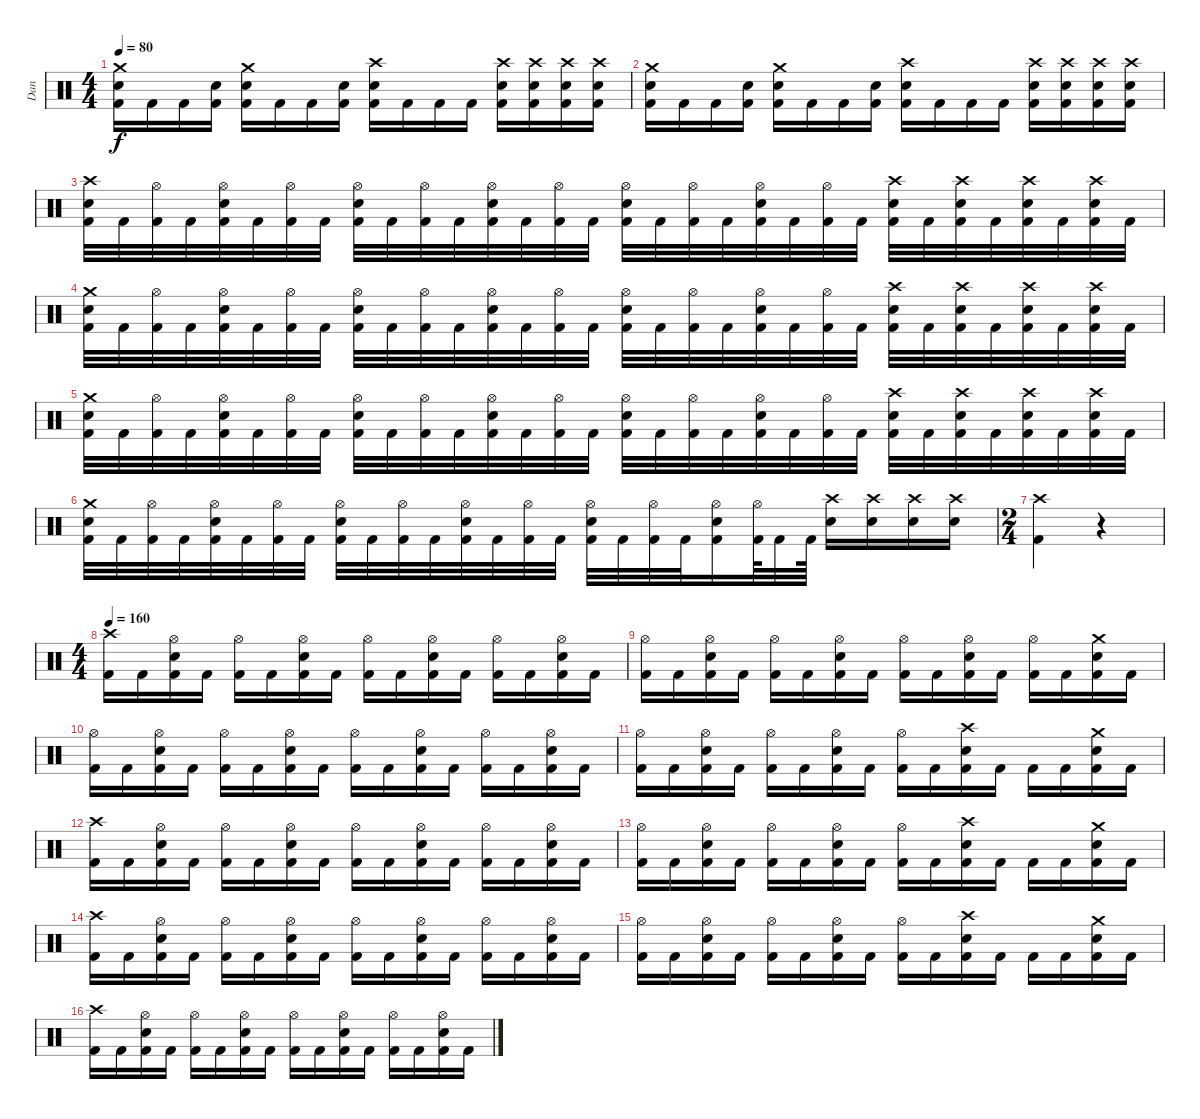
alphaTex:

\track ("Dan " "Dan ") {instrument percussion}
\staff {score}
\articulation defaults
\ts (4 4)
\tempo 80
\clef neutral
\ks c
("Metronome (bell)" "Kick (hit) 2" "Crash medium (hit)").16{dy f} "Kick (hit) 2".16 "Kick (hit) 2".16 ("Metronome (bell)" "Kick (hit) 2").16 ("Metronome (bell)" "Kick (hit) 2" "Crash medium (hit)").16 "Kick (hit) 2".16 "Kick (hit) 2".16 ("Metronome (bell)" "Kick (hit) 2").16 ("Metronome (bell)" "Kick (hit) 2" "Crash high (hit)").16 "Kick (hit) 2".16 "Kick (hit) 2".16 "Kick (hit) 2".16 ("Metronome (bell)" "Kick (hit) 2" "Crash high (hit)").16 ("Metronome (bell)" "Kick (hit) 2" "Crash high (hit)").16 ("Metronome (bell)" "Kick (hit) 2" "Crash high (hit)").16 ("Metronome (bell)" "Kick (hit) 2" "Crash high (hit)").16 |
("Metronome (bell)" "Kick (hit) 2" "Crash medium (hit)").16 "Kick (hit) 2".16 "Kick (hit) 2".16 ("Metronome (bell)" "Kick (hit) 2").16 ("Metronome (bell)" "Kick (hit) 2" "Crash medium (hit)").16 "Kick (hit) 2".16 "Kick (hit) 2".16 ("Metronome (bell)" "Kick (hit) 2").16 ("Metronome (bell)" "Kick (hit) 2" "Crash high (hit)").16 "Kick (hit) 2".16 "Kick (hit) 2".16 "Kick (hit) 2".16 ("Metronome (bell)" "Kick (hit) 2" "Crash high (hit)").16 ("Metronome (bell)" "Kick (hit) 2" "Crash high (hit)").16 ("Metronome (bell)" "Kick (hit) 2" "Crash high (hit)").16 ("Metronome (bell)" "Kick (hit) 2" "Crash high (hit)").16 |
("Metronome (bell)" "Kick (hit) 2" "Crash high (hit)").32 "Kick (hit) 2".32 ("Kick (hit) 2" "Hi-Hat (open)").32 "Kick (hit) 2".32 ("Metronome (bell)" "Kick (hit) 2" "Hi-Hat (open)").32 "Kick (hit) 2".32 ("Kick (hit) 2" "Hi-Hat (open)").32 "Kick (hit) 2".32 ("Metronome (bell)" "Kick (hit) 2" "Hi-Hat (open)").32 "Kick (hit) 2".32 ("Kick (hit) 2" "Hi-Hat (open)").32 "Kick (hit) 2".32 ("Metronome (bell)" "Kick (hit) 2" "Hi-Hat (open)").32 "Kick (hit) 2".32 ("Kick (hit) 2" "Hi-Hat (open)").32 "Kick (hit) 2".32 ("Metronome (bell)" "Kick (hit) 2" "Hi-Hat (open)").32 "Kick (hit) 2".32 ("Kick (hit) 2" "Hi-Hat (open)").32 "Kick (hit) 2".32 ("Metronome (bell)" "Kick (hit) 2" "Hi-Hat (open)").32 "Kick (hit) 2".32 ("Kick (hit) 2" "Hi-Hat (open)").32 "Kick (hit) 2".32 ("Metronome (bell)" "Kick (hit) 2" "Crash high (hit)").32 "Kick (hit) 2".32 ("Metronome (bell)" "Kick (hit) 2" "Crash high (hit)").32 "Kick (hit) 2".32 ("Metronome (bell)" "Kick (hit) 2" "Crash high (hit)").32 "Kick (hit) 2".32 ("Metronome (bell)" "Kick (hit) 2" "Crash high (hit)").32 "Kick (hit) 2".32 |
("Metronome (bell)" "Kick (hit) 2" "Crash medium (hit)").32 "Kick (hit) 2".32 ("Kick (hit) 2" "Hi-Hat (open)").32 "Kick (hit) 2".32 ("Metronome (bell)" "Kick (hit) 2" "Hi-Hat (open)").32 "Kick (hit) 2".32 ("Kick (hit) 2" "Hi-Hat (open)").32 "Kick (hit) 2".32 ("Metronome (bell)" "Kick (hit) 2" "Hi-Hat (open)").32 "Kick (hit) 2".32 ("Kick (hit) 2" "Hi-Hat (open)").32 "Kick (hit) 2".32 ("Metronome (bell)" "Kick (hit) 2" "Hi-Hat (open)").32 "Kick (hit) 2".32 ("Kick (hit) 2" "Hi-Hat (open)").32 "Kick (hit) 2".32 ("Metronome (bell)" "Kick (hit) 2" "Hi-Hat (open)").32 "Kick (hit) 2".32 ("Kick (hit) 2" "Hi-Hat (open)").32 "Kick (hit) 2".32 ("Metronome (bell)" "Kick (hit) 2" "Hi-Hat (open)").32 "Kick (hit) 2".32 ("Kick (hit) 2" "Hi-Hat (open)").32 "Kick (hit) 2".32 ("Metronome (bell)" "Kick (hit) 2" "Crash high (hit)").32 "Kick (hit) 2".32 ("Metronome (bell)" "Kick (hit) 2" "Crash high (hit)").32 "Kick (hit) 2".32 ("Metronome (bell)" "Kick (hit) 2" "Crash high (hit)").32 "Kick (hit) 2".32 ("Metronome (bell)" "Kick (hit) 2" "Crash high (hit)").32 "Kick (hit) 2".32 |
("Metronome (bell)" "Kick (hit) 2" "Crash medium (hit)").32 "Kick (hit) 2".32 ("Kick (hit) 2" "Hi-Hat (open)").32 "Kick (hit) 2".32 ("Metronome (bell)" "Kick (hit) 2" "Hi-Hat (open)").32 "Kick (hit) 2".32 ("Kick (hit) 2" "Hi-Hat (open)").32 "Kick (hit) 2".32 ("Metronome (bell)" "Kick (hit) 2" "Hi-Hat (open)").32 "Kick (hit) 2".32 ("Kick (hit) 2" "Hi-Hat (open)").32 "Kick (hit) 2".32 ("Metronome (bell)" "Kick (hit) 2" "Hi-Hat (open)").32 "Kick (hit) 2".32 ("Kick (hit) 2" "Hi-Hat (open)").32 "Kick (hit) 2".32 ("Metronome (bell)" "Kick (hit) 2" "Hi-Hat (open)").32 "Kick (hit) 2".32 ("Kick (hit) 2" "Hi-Hat (open)").32 "Kick (hit) 2".32 ("Metronome (bell)" "Kick (hit) 2" "Hi-Hat (open)").32 "Kick (hit) 2".32 ("Kick (hit) 2" "Hi-Hat (open)").32 "Kick (hit) 2".32 ("Metronome (bell)" "Kick (hit) 2" "Crash high (hit)").32 "Kick (hit) 2".32 ("Metronome (bell)" "Kick (hit) 2" "Crash high (hit)").32 "Kick (hit) 2".32 ("Metronome (bell)" "Kick (hit) 2" "Crash high (hit)").32 "Kick (hit) 2".32 ("Metronome (bell)" "Kick (hit) 2" "Crash high (hit)").32 "Kick (hit) 2".32 |
("Metronome (bell)" "Kick (hit) 2" "Crash medium (hit)").32 "Kick (hit) 2".32 ("Kick (hit) 2" "Hi-Hat (open)").32 "Kick (hit) 2".32 ("Metronome (bell)" "Kick (hit) 2" "Hi-Hat (open)").32 "Kick (hit) 2".32 ("Kick (hit) 2" "Hi-Hat (open)").32 "Kick (hit) 2".32 ("Metronome (bell)" "Kick (hit) 2" "Hi-Hat (open)").32 "Kick (hit) 2".32 ("Kick (hit) 2" "Hi-Hat (open)").32 "Kick (hit) 2".32 ("Metronome (bell)" "Kick (hit) 2" "Hi-Hat (open)").32 "Kick (hit) 2".32 ("Kick (hit) 2" "Hi-Hat (open)").32 "Kick (hit) 2".32 ("Metronome (bell)" "Kick (hit) 2" "Hi-Hat (open)").32 "Kick (hit) 2".32 ("Kick (hit) 2" "Hi-Hat (open)").32 "Kick (hit) 2".32 ("Metronome (bell)" "Kick (hit) 2" "Hi-Hat (open)").16 ("Kick (hit) 2" "Hi-Hat (open)").64 "Kick (hit) 2".32 "Kick (hit) 2".64 ("Metronome (bell)" "Crash high (hit)").16 ("Metronome (bell)" "Crash high (hit)").16 ("Metronome (bell)" "Crash high (hit)").16 ("Metronome (bell)" "Crash high (hit)").16 |
\ts (2 4)
("Kick (hit) 2" "Crash high (hit)").4 r.4 |
\ts (4 4)
\tempo 160
("Kick (hit) 2" "Crash high (hit)").16 "Kick (hit) 2".16 ("Metronome (bell)" "Kick (hit) 2" "Hi-Hat (open)").16 "Kick (hit) 2".16 ("Kick (hit) 2" "Hi-Hat (open)").16 "Kick (hit) 2".16 ("Metronome (bell)" "Kick (hit) 2" "Hi-Hat (open)").16 "Kick (hit) 2".16 ("Kick (hit) 2" "Hi-Hat (open)").16 "Kick (hit) 2".16 ("Metronome (bell)" "Kick (hit) 2" "Hi-Hat (open)").16 "Kick (hit) 2".16 ("Kick (hit) 2" "Hi-Hat (open)").16 "Kick (hit) 2".16 ("Metronome (bell)" "Kick (hit) 2" "Hi-Hat (open)").16 "Kick (hit) 2".16 |
("Kick (hit) 2" "Hi-Hat (open)").16 "Kick (hit) 2".16 ("Metronome (bell)" "Kick (hit) 2" "Hi-Hat (open)").16 "Kick (hit) 2".16 ("Kick (hit) 2" "Hi-Hat (open)").16 "Kick (hit) 2".16 ("Metronome (bell)" "Kick (hit) 2" "Hi-Hat (open)").16 "Kick (hit) 2".16 ("Kick (hit) 2" "Hi-Hat (open)").16 "Kick (hit) 2".16 ("Metronome (bell)" "Kick (hit) 2" "Hi-Hat (open)").16 "Kick (hit) 2".16 ("Kick (hit) 2" "Hi-Hat (open)").16 "Kick (hit) 2".16 ("Metronome (bell)" "Kick (hit) 2" "Crash medium (hit)").16 "Kick (hit) 2".16 |
("Kick (hit) 2" "Hi-Hat (open)").16 "Kick (hit) 2".16 ("Metronome (bell)" "Kick (hit) 2" "Hi-Hat (open)").16 "Kick (hit) 2".16 ("Kick (hit) 2" "Hi-Hat (open)").16 "Kick (hit) 2".16 ("Metronome (bell)" "Kick (hit) 2" "Hi-Hat (open)").16 "Kick (hit) 2".16 ("Kick (hit) 2" "Hi-Hat (open)").16 "Kick (hit) 2".16 ("Metronome (bell)" "Kick (hit) 2" "Hi-Hat (open)").16 "Kick (hit) 2".16 ("Kick (hit) 2" "Hi-Hat (open)").16 "Kick (hit) 2".16 ("Metronome (bell)" "Kick (hit) 2" "Hi-Hat (open)").16 "Kick (hit) 2".16 |
("Kick (hit) 2" "Hi-Hat (open)").16 "Kick (hit) 2".16 ("Metronome (bell)" "Kick (hit) 2" "Hi-Hat (open)").16 "Kick (hit) 2".16 ("Kick (hit) 2" "Hi-Hat (open)").16 "Kick (hit) 2".16 ("Metronome (bell)" "Kick (hit) 2" "Hi-Hat (open)").16 "Kick (hit) 2".16 ("Kick (hit) 2" "Hi-Hat (open)").16 "Kick (hit) 2".16 ("Metronome (bell)" "Kick (hit) 2" "Crash high (hit)").16 "Kick (hit) 2".16 "Kick (hit) 2".16 "Kick (hit) 2".16 ("Metronome (bell)" "Kick (hit) 2" "Crash medium (hit)").16 "Kick (hit) 2".16 |
("Kick (hit) 2" "Crash high (hit)").16 "Kick (hit) 2".16 ("Metronome (bell)" "Kick (hit) 2" "Hi-Hat (open)").16 "Kick (hit) 2".16 ("Kick (hit) 2" "Hi-Hat (open)").16 "Kick (hit) 2".16 ("Metronome (bell)" "Kick (hit) 2" "Hi-Hat (open)").16 "Kick (hit) 2".16 ("Kick (hit) 2" "Hi-Hat (open)").16 "Kick (hit) 2".16 ("Metronome (bell)" "Kick (hit) 2" "Hi-Hat (open)").16 "Kick (hit) 2".16 ("Kick (hit) 2" "Hi-Hat (open)").16 "Kick (hit) 2".16 ("Metronome (bell)" "Kick (hit) 2" "Hi-Hat (open)").16 "Kick (hit) 2".16 |
("Kick (hit) 2" "Hi-Hat (open)").16 "Kick (hit) 2".16 ("Metronome (bell)" "Kick (hit) 2" "Hi-Hat (open)").16 "Kick (hit) 2".16 ("Kick (hit) 2" "Hi-Hat (open)").16 "Kick (hit) 2".16 ("Metronome (bell)" "Kick (hit) 2" "Hi-Hat (open)").16 "Kick (hit) 2".16 ("Kick (hit) 2" "Hi-Hat (open)").16 "Kick (hit) 2".16 ("Metronome (bell)" "Kick (hit) 2" "Crash high (hit)").16 "Kick (hit) 2".16 "Kick (hit) 2".16 "Kick (hit) 2".16 ("Metronome (bell)" "Kick (hit) 2" "Crash medium (hit)").16 "Kick (hit) 2".16 |
("Kick (hit) 2" "Crash high (hit)").16 "Kick (hit) 2".16 ("Metronome (bell)" "Kick (hit) 2" "Hi-Hat (open)").16 "Kick (hit) 2".16 ("Kick (hit) 2" "Hi-Hat (open)").16 "Kick (hit) 2".16 ("Metronome (bell)" "Kick (hit) 2" "Hi-Hat (open)").16 "Kick (hit) 2".16 ("Kick (hit) 2" "Hi-Hat (open)").16 "Kick (hit) 2".16 ("Metronome (bell)" "Kick (hit) 2" "Hi-Hat (open)").16 "Kick (hit) 2".16 ("Kick (hit) 2" "Hi-Hat (open)").16 "Kick (hit) 2".16 ("Metronome (bell)" "Kick (hit) 2" "Hi-Hat (open)").16 "Kick (hit) 2".16 |
("Kick (hit) 2" "Hi-Hat (open)").16 "Kick (hit) 2".16 ("Metronome (bell)" "Kick (hit) 2" "Hi-Hat (open)").16 "Kick (hit) 2".16 ("Kick (hit) 2" "Hi-Hat (open)").16 "Kick (hit) 2".16 ("Metronome (bell)" "Kick (hit) 2" "Hi-Hat (open)").16 "Kick (hit) 2".16 ("Kick (hit) 2" "Hi-Hat (open)").16 "Kick (hit) 2".16 ("Metronome (bell)" "Kick (hit) 2" "Crash high (hit)").16 "Kick (hit) 2".16 "Kick (hit) 2".16 "Kick (hit) 2".16 ("Metronome (bell)" "Kick (hit) 2" "Crash medium (hit)").16 "Kick (hit) 2".16 |
("Kick (hit) 2" "Crash high (hit)").16 "Kick (hit) 2".16 ("Metronome (bell)" "Kick (hit) 2" "Hi-Hat (open)").16 "Kick (hit) 2".16 ("Kick (hit) 2" "Hi-Hat (open)").16 "Kick (hit) 2".16 ("Metronome (bell)" "Kick (hit) 2" "Hi-Hat (open)").16 "Kick (hit) 2".16 ("Kick (hit) 2" "Hi-Hat (open)").16 "Kick (hit) 2".16 ("Metronome (bell)" "Kick (hit) 2" "Hi-Hat (open)").16 "Kick (hit) 2".16 ("Kick (hit) 2" "Hi-Hat (open)").16 "Kick (hit) 2".16 ("Metronome (bell)" "Kick (hit) 2" "Hi-Hat (open)").16 "Kick (hit) 2".16
